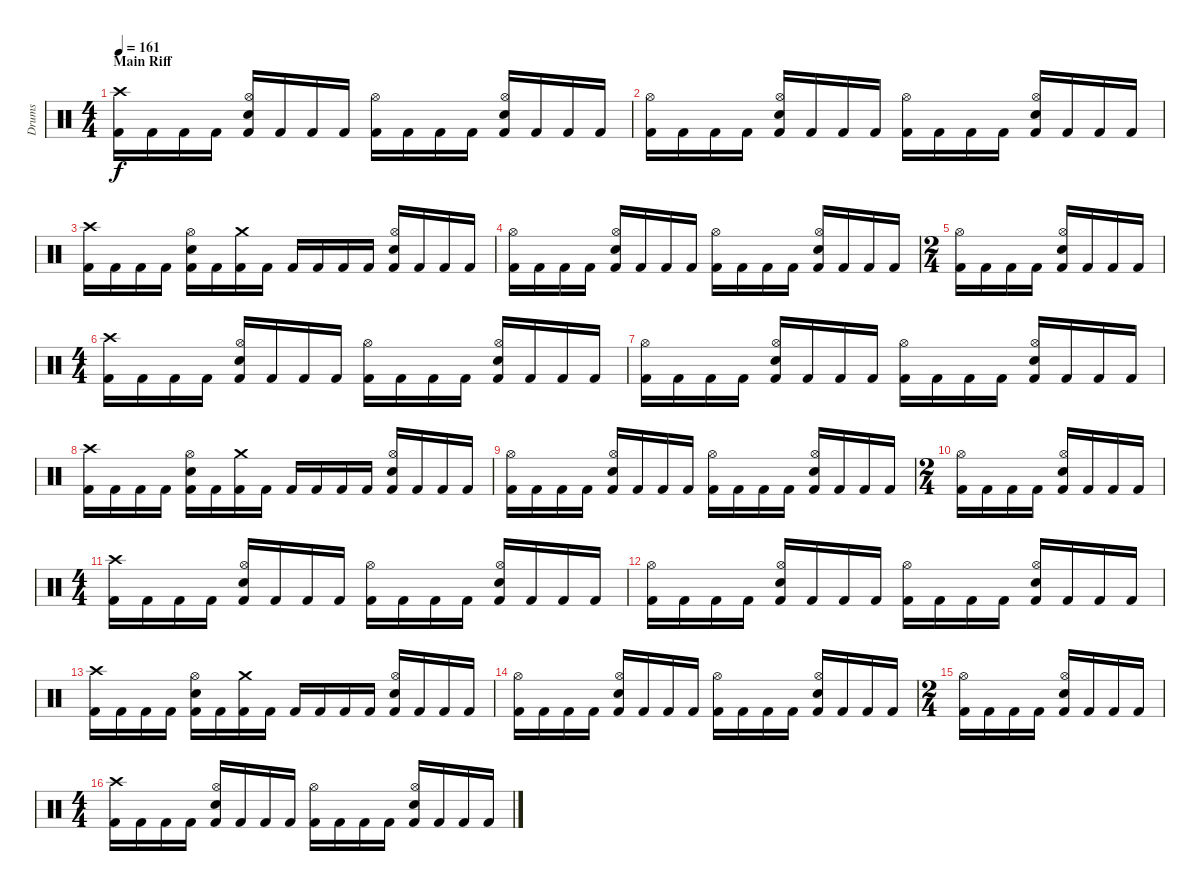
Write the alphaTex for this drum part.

\track ("Drums" "Drums") {instrument percussion}
\staff {score}
\articulation defaults
\ts (4 4)
\section ("" "Main Riff")
\tempo 161
\clef neutral
\ks c
("Crash high (hit)" "Kick (hit) 2").16{dy f} "Kick (hit) 2".16 "Kick (hit) 2".16 "Kick (hit) 2".16 ("Hi-Hat (open)" "Snare (hit) 2" "Kick (hit) 2").16 "Kick (hit) 2".16 "Kick (hit) 2".16 "Kick (hit) 2".16 ("Hi-Hat (open)" "Kick (hit) 2").16 "Kick (hit) 2".16 "Kick (hit) 2".16 "Kick (hit) 2".16 ("Hi-Hat (open)" "Snare (hit) 2" "Kick (hit) 2").16 "Kick (hit) 2".16 "Kick (hit) 2".16 "Kick (hit) 2".16 |
("Hi-Hat (open)" "Kick (hit) 2").16 "Kick (hit) 2".16 "Kick (hit) 2".16 "Kick (hit) 2".16 ("Hi-Hat (open)" "Snare (hit) 2" "Kick (hit) 2").16 "Kick (hit) 2".16 "Kick (hit) 2".16 "Kick (hit) 2".16 ("Hi-Hat (open)" "Kick (hit) 2").16 "Kick (hit) 2".16 "Kick (hit) 2".16 "Kick (hit) 2".16 ("Hi-Hat (open)" "Snare (hit) 2" "Kick (hit) 2").16 "Kick (hit) 2".16 "Kick (hit) 2".16 "Kick (hit) 2".16 |
("Crash high (hit)" "Kick (hit) 2").16 "Kick (hit) 2".16 "Kick (hit) 2".16 "Kick (hit) 2".16 ("Hi-Hat (open)" "Snare (hit) 2" "Kick (hit) 2").16 "Kick (hit) 2".16 ("Crash medium (hit)" "Kick (hit) 2").16 "Kick (hit) 2".16 "Kick (hit) 2".16 "Kick (hit) 2".16 "Kick (hit) 2".16 "Kick (hit) 2".16 ("Hi-Hat (open)" "Snare (hit) 2" "Kick (hit) 2").16 "Kick (hit) 2".16 "Kick (hit) 2".16 "Kick (hit) 2".16 |
("Hi-Hat (open)" "Kick (hit) 2").16 "Kick (hit) 2".16 "Kick (hit) 2".16 "Kick (hit) 2".16 ("Hi-Hat (open)" "Snare (hit) 2" "Kick (hit) 2").16 "Kick (hit) 2".16 "Kick (hit) 2".16 "Kick (hit) 2".16 ("Hi-Hat (open)" "Kick (hit) 2").16 "Kick (hit) 2".16 "Kick (hit) 2".16 "Kick (hit) 2".16 ("Hi-Hat (open)" "Snare (hit) 2" "Kick (hit) 2").16 "Kick (hit) 2".16 "Kick (hit) 2".16 "Kick (hit) 2".16 |
\ts (2 4)
("Hi-Hat (open)" "Kick (hit) 2").16 "Kick (hit) 2".16 "Kick (hit) 2".16 "Kick (hit) 2".16 ("Hi-Hat (open)" "Snare (hit) 2" "Kick (hit) 2").16 "Kick (hit) 2".16 "Kick (hit) 2".16 "Kick (hit) 2".16 |
\ts (4 4)
("Crash high (hit)" "Kick (hit) 2").16 "Kick (hit) 2".16 "Kick (hit) 2".16 "Kick (hit) 2".16 ("Hi-Hat (open)" "Snare (hit) 2" "Kick (hit) 2").16 "Kick (hit) 2".16 "Kick (hit) 2".16 "Kick (hit) 2".16 ("Hi-Hat (open)" "Kick (hit) 2").16 "Kick (hit) 2".16 "Kick (hit) 2".16 "Kick (hit) 2".16 ("Hi-Hat (open)" "Snare (hit) 2" "Kick (hit) 2").16 "Kick (hit) 2".16 "Kick (hit) 2".16 "Kick (hit) 2".16 |
("Hi-Hat (open)" "Kick (hit) 2").16 "Kick (hit) 2".16 "Kick (hit) 2".16 "Kick (hit) 2".16 ("Hi-Hat (open)" "Snare (hit) 2" "Kick (hit) 2").16 "Kick (hit) 2".16 "Kick (hit) 2".16 "Kick (hit) 2".16 ("Hi-Hat (open)" "Kick (hit) 2").16 "Kick (hit) 2".16 "Kick (hit) 2".16 "Kick (hit) 2".16 ("Hi-Hat (open)" "Snare (hit) 2" "Kick (hit) 2").16 "Kick (hit) 2".16 "Kick (hit) 2".16 "Kick (hit) 2".16 |
("Crash high (hit)" "Kick (hit) 2").16 "Kick (hit) 2".16 "Kick (hit) 2".16 "Kick (hit) 2".16 ("Hi-Hat (open)" "Snare (hit) 2" "Kick (hit) 2").16 "Kick (hit) 2".16 ("Crash medium (hit)" "Kick (hit) 2").16 "Kick (hit) 2".16 "Kick (hit) 2".16 "Kick (hit) 2".16 "Kick (hit) 2".16 "Kick (hit) 2".16 ("Hi-Hat (open)" "Snare (hit) 2" "Kick (hit) 2").16 "Kick (hit) 2".16 "Kick (hit) 2".16 "Kick (hit) 2".16 |
("Hi-Hat (open)" "Kick (hit) 2").16 "Kick (hit) 2".16 "Kick (hit) 2".16 "Kick (hit) 2".16 ("Hi-Hat (open)" "Snare (hit) 2" "Kick (hit) 2").16 "Kick (hit) 2".16 "Kick (hit) 2".16 "Kick (hit) 2".16 ("Hi-Hat (open)" "Kick (hit) 2").16 "Kick (hit) 2".16 "Kick (hit) 2".16 "Kick (hit) 2".16 ("Hi-Hat (open)" "Snare (hit) 2" "Kick (hit) 2").16 "Kick (hit) 2".16 "Kick (hit) 2".16 "Kick (hit) 2".16 |
\ts (2 4)
("Hi-Hat (open)" "Kick (hit) 2").16 "Kick (hit) 2".16 "Kick (hit) 2".16 "Kick (hit) 2".16 ("Hi-Hat (open)" "Snare (hit) 2" "Kick (hit) 2").16 "Kick (hit) 2".16 "Kick (hit) 2".16 "Kick (hit) 2".16 |
\ts (4 4)
("Crash high (hit)" "Kick (hit) 2").16 "Kick (hit) 2".16 "Kick (hit) 2".16 "Kick (hit) 2".16 ("Hi-Hat (open)" "Snare (hit) 2" "Kick (hit) 2").16 "Kick (hit) 2".16 "Kick (hit) 2".16 "Kick (hit) 2".16 ("Hi-Hat (open)" "Kick (hit) 2").16 "Kick (hit) 2".16 "Kick (hit) 2".16 "Kick (hit) 2".16 ("Hi-Hat (open)" "Snare (hit) 2" "Kick (hit) 2").16 "Kick (hit) 2".16 "Kick (hit) 2".16 "Kick (hit) 2".16 |
("Hi-Hat (open)" "Kick (hit) 2").16 "Kick (hit) 2".16 "Kick (hit) 2".16 "Kick (hit) 2".16 ("Hi-Hat (open)" "Snare (hit) 2" "Kick (hit) 2").16 "Kick (hit) 2".16 "Kick (hit) 2".16 "Kick (hit) 2".16 ("Hi-Hat (open)" "Kick (hit) 2").16 "Kick (hit) 2".16 "Kick (hit) 2".16 "Kick (hit) 2".16 ("Hi-Hat (open)" "Snare (hit) 2" "Kick (hit) 2").16 "Kick (hit) 2".16 "Kick (hit) 2".16 "Kick (hit) 2".16 |
("Crash high (hit)" "Kick (hit) 2").16 "Kick (hit) 2".16 "Kick (hit) 2".16 "Kick (hit) 2".16 ("Hi-Hat (open)" "Snare (hit) 2" "Kick (hit) 2").16 "Kick (hit) 2".16 ("Crash medium (hit)" "Kick (hit) 2").16 "Kick (hit) 2".16 "Kick (hit) 2".16 "Kick (hit) 2".16 "Kick (hit) 2".16 "Kick (hit) 2".16 ("Hi-Hat (open)" "Snare (hit) 2" "Kick (hit) 2").16 "Kick (hit) 2".16 "Kick (hit) 2".16 "Kick (hit) 2".16 |
("Hi-Hat (open)" "Kick (hit) 2").16 "Kick (hit) 2".16 "Kick (hit) 2".16 "Kick (hit) 2".16 ("Hi-Hat (open)" "Snare (hit) 2" "Kick (hit) 2").16 "Kick (hit) 2".16 "Kick (hit) 2".16 "Kick (hit) 2".16 ("Hi-Hat (open)" "Kick (hit) 2").16 "Kick (hit) 2".16 "Kick (hit) 2".16 "Kick (hit) 2".16 ("Hi-Hat (open)" "Snare (hit) 2" "Kick (hit) 2").16 "Kick (hit) 2".16 "Kick (hit) 2".16 "Kick (hit) 2".16 |
\ts (2 4)
("Hi-Hat (open)" "Kick (hit) 2").16 "Kick (hit) 2".16 "Kick (hit) 2".16 "Kick (hit) 2".16 ("Hi-Hat (open)" "Snare (hit) 2" "Kick (hit) 2").16 "Kick (hit) 2".16 "Kick (hit) 2".16 "Kick (hit) 2".16 |
\ts (4 4)
("Crash high (hit)" "Kick (hit) 2").16 "Kick (hit) 2".16 "Kick (hit) 2".16 "Kick (hit) 2".16 ("Hi-Hat (open)" "Snare (hit) 2" "Kick (hit) 2").16 "Kick (hit) 2".16 "Kick (hit) 2".16 "Kick (hit) 2".16 ("Hi-Hat (open)" "Kick (hit) 2").16 "Kick (hit) 2".16 "Kick (hit) 2".16 "Kick (hit) 2".16 ("Hi-Hat (open)" "Snare (hit) 2" "Kick (hit) 2").16 "Kick (hit) 2".16 "Kick (hit) 2".16 "Kick (hit) 2".16
